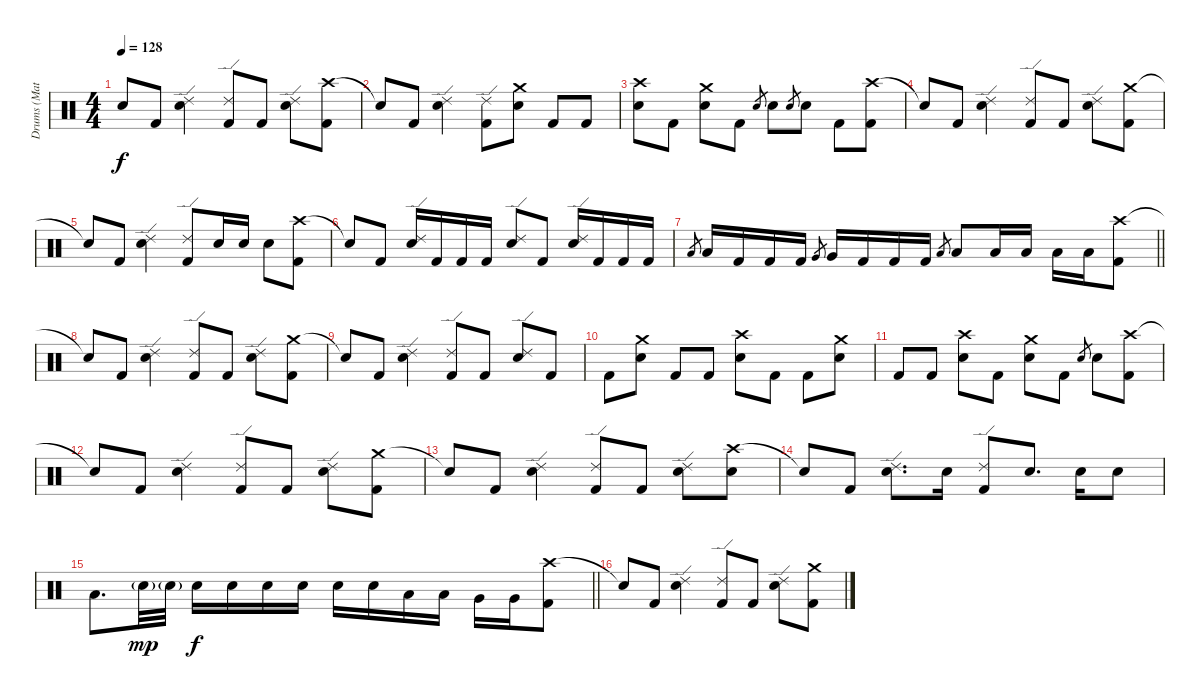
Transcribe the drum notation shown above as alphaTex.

\track ("Drums (Matt)" "Drums (Mat") {instrument percussion}
\staff {score}
\articulation defaults
\ts (4 4)
\tempo 128
\clef neutral
\ks c "Snare (hit)"{t}.8{dy f} "Kick (hit) 2".8
("Ride (edge) 2" "Snare (hit) 2").4 ("Ride (edge) 2" "Kick (hit) 2").8 "Kick (hit) 2".8 ("Ride (edge) 2" "Snare (hit) 2").8 ("Crash high (hit)" "Kick (hit) 2").8 |
"Snare (hit)"{t}.8 "Kick (hit) 2".8 ("Ride (edge) 2" "Snare (hit) 2").4 ("Ride (edge) 2" "Kick (hit) 2").8 ("Crash medium (hit)" "Snare (hit) 2").8 "Kick (hit) 2".8 "Kick (hit) 2".8 |
("Crash high (hit)" "Snare (hit) 2").8 "Kick (hit) 2".8 ("Crash medium (hit)" "Snare (hit) 2").8 "Kick (hit) 2".8 "Snare (hit) 2".8{gr} "Snare (hit) 2".8 "Snare (hit) 2".8{gr} "Snare (hit) 2".8 "Kick (hit) 2".8 ("Crash high (hit)" "Kick (hit) 2").8 |
"Snare (hit)"{t}.8 "Kick (hit) 2".8 ("Ride (edge) 2" "Snare (hit) 2").4 ("Ride (edge) 2" "Kick (hit) 2").8 "Kick (hit) 2".8 ("Ride (edge) 2" "Snare (hit) 2").8 ("Crash medium (hit)" "Kick (hit) 2").8 |
"Snare (hit)"{t}.8 "Kick (hit) 2".8 ("Ride (edge) 2" "Snare (hit) 2").4 ("Ride (edge) 2" "Kick (hit) 2").8 "Snare (hit) 2".16 "Snare (hit) 2".16 "Snare (hit) 2".8 ("Crash high (hit)" "Kick (hit) 2").8 |
"Snare (hit)"{t}.8 "Kick (hit) 2".8 ("Ride (edge) 2" "Snare (hit) 2").16 "Kick (hit) 2".16 "Kick (hit) 2".16 "Kick (hit) 2".16 ("Ride (edge) 2" "Snare (hit) 2").8 "Kick (hit) 2".8 ("Ride (edge) 2" "Snare (hit) 2").16 "Kick (hit) 2".16 "Kick (hit) 2".16 "Kick (hit) 2".16 |
\barLineRight lightlight "Low Tom (hit)".8{gr} "Low Tom (hit)".16 "Kick (hit) 2".16 "Kick (hit) 2".16 "Kick (hit) 2".16 "Very Low Tom (hit)".8{gr} "Very Low Tom (hit)".16 "Kick (hit) 2".16 "Kick (hit) 2".16 "Kick (hit) 2".16 "Low Floor Tom (hit)".8{gr} "Low Floor Tom (hit)".8 "Low Floor Tom (hit)".16 "Low Floor Tom (hit)".16 "Low Floor Tom (hit)".16 "Low Floor Tom (hit)".16
("Crash high (hit)" "Kick (hit) 2").8 |
"Snare (hit)"{t}.8 "Kick (hit) 2".8 ("Ride (edge) 2" "Snare (hit) 2").4 ("Ride (edge) 2" "Kick (hit) 2").8 "Kick (hit) 2".8 ("Ride (edge) 2" "Snare (hit) 2").8 ("Crash medium (hit)" "Kick (hit) 2").8 |
"Snare (hit)"{t}.8 "Kick (hit) 2".8 ("Ride (edge) 2" "Snare (hit) 2").4 ("Ride (edge) 2" "Kick (hit) 2").8 "Kick (hit) 2".8 ("Ride (edge) 2" "Snare (hit) 2").8 "Kick (hit) 2".8 |
"Kick (hit) 2".8 ("Crash medium (hit)" "Snare (hit) 2").8 "Kick (hit) 2".8 "Kick (hit) 2".8 ("Crash high (hit)" "Snare (hit) 2").8 "Kick (hit) 2".8 "Kick (hit) 2".8 ("Crash medium (hit)" "Snare (hit) 2").8 |
"Kick (hit) 2".8 "Kick (hit) 2".8 ("Crash high (hit)" "Snare (hit) 2").8 "Kick (hit) 2".8 ("Crash medium (hit)" "Snare (hit) 2").8 "Kick (hit) 2".8 "Snare (hit) 2".8{gr} "Snare (hit) 2".8 ("Crash high (hit)" "Kick (hit) 2").8 |
"Snare (hit)"{t}.8 "Kick (hit) 2".8 ("Ride (edge) 2" "Snare (hit) 2").4 ("Ride (edge) 2" "Kick (hit) 2").8 "Kick (hit) 2".8 ("Ride (edge) 2" "Snare (hit) 2").8 ("Crash medium (hit)" "Kick (hit) 2").8 |
"Snare (hit)"{t}.8 "Kick (hit) 2".8 ("Ride (edge) 2" "Snare (hit) 2").4 ("Ride (edge) 2" "Kick (hit) 2").8 "Kick (hit) 2".8 ("Ride (edge) 2" "Snare (hit) 2").8 ("Crash high (hit)" "Snare (hit) 2").8 |
"Snare (hit)"{t}.8 "Kick (hit) 2".8 ("Ride (edge) 2" "Snare (hit) 2").8{d} "Snare (hit) 2".16 ("Ride (edge) 2" "Kick (hit) 2").8 "Snare (hit) 2".8{d} "Snare (hit) 2".16 "Snare (hit) 2".8 |
\barLineRight lightlight "Low Tom (hit)".8{d} "Snare (hit) 2"{g}.32{dy mp} "Snare (hit) 2"{g}.32 "Snare (hit) 2".16{dy f} "Snare (hit) 2".16 "Snare (hit) 2".16 "Snare (hit) 2".16 "Snare (hit) 2".16 "Snare (hit) 2".16 "Low Tom (hit)".16 "Low Tom (hit)".16 "Very Low Tom (hit)".16 "Very Low Tom (hit)".16
("Crash high (hit)" "Kick (hit) 2").8 |
"Snare (hit)"{t}.8 "Kick (hit) 2".8 ("Ride (edge) 2" "Snare (hit) 2").4 ("Ride (edge) 2" "Kick (hit) 2").8 "Kick (hit) 2".8 ("Ride (edge) 2" "Snare (hit) 2").8 ("Crash medium (hit)" "Kick (hit) 2").8
